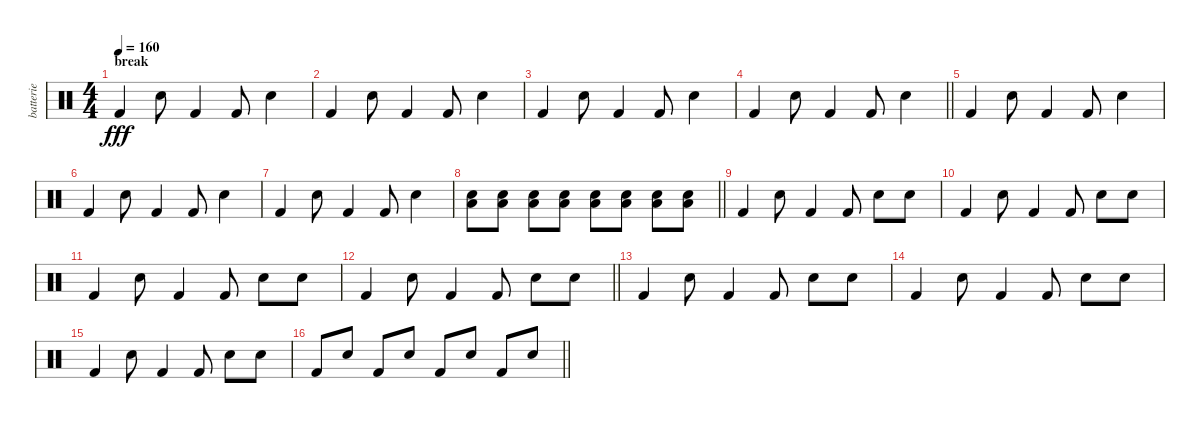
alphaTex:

\track ("batterie" "batterie") {instrument percussion}
\staff {score}
\articulation defaults
\ts (4 4)
\section ("" "break")
\tempo 160
\clef neutral
\ks c "Kick (hit) 2".4{dy fff} "Electric Snare (hit)".8 "Kick (hit) 2".4 "Kick (hit) 2".8 "Electric Snare (hit)".4
|
"Kick (hit) 2".4 "Electric Snare (hit)".8 "Kick (hit) 2".4 "Kick (hit) 2".8 "Electric Snare (hit)".4 |
"Kick (hit) 2".4 "Electric Snare (hit)".8 "Kick (hit) 2".4 "Kick (hit) 2".8 "Electric Snare (hit)".4 |
\barLineRight lightlight "Kick (hit) 2".4 "Electric Snare (hit)".8 "Kick (hit) 2".4 "Kick (hit) 2".8 "Electric Snare (hit)".4
|
"Kick (hit) 2".4 "Electric Snare (hit)".8 "Kick (hit) 2".4 "Kick (hit) 2".8 "Electric Snare (hit)".4 |
"Kick (hit) 2".4 "Electric Snare (hit)".8 "Kick (hit) 2".4 "Kick (hit) 2".8 "Electric Snare (hit)".4 |
"Kick (hit) 2".4 "Electric Snare (hit)".8 "Kick (hit) 2".4 "Kick (hit) 2".8 "Electric Snare (hit)".4 |
\barLineRight lightlight
("Electric Snare (hit)" "Low Floor Tom (hit)").8 ("Electric Snare (hit)" "Low Floor Tom (hit)").8 ("Electric Snare (hit)" "Low Floor Tom (hit)").8 ("Electric Snare (hit)" "Low Floor Tom (hit)").8 ("Electric Snare (hit)" "Low Floor Tom (hit)").8 ("Electric Snare (hit)" "Low Floor Tom (hit)").8 ("Electric Snare (hit)" "Low Floor Tom (hit)").8 ("Electric Snare (hit)" "Low Floor Tom (hit)").8 |
"Kick (hit) 2".4 "Electric Snare (hit)".8 "Kick (hit) 2".4 "Kick (hit) 2".8 "Electric Snare (hit)".8 "Electric Snare (hit)".8 |
"Kick (hit) 2".4 "Electric Snare (hit)".8 "Kick (hit) 2".4 "Kick (hit) 2".8 "Electric Snare (hit)".8 "Electric Snare (hit)".8 |
"Kick (hit) 2".4 "Electric Snare (hit)".8 "Kick (hit) 2".4 "Kick (hit) 2".8 "Electric Snare (hit)".8 "Electric Snare (hit)".8 |
\barLineRight lightlight "Kick (hit) 2".4 "Electric Snare (hit)".8 "Kick (hit) 2".4 "Kick (hit) 2".8 "Electric Snare (hit)".8 "Electric Snare (hit)".8
|
"Kick (hit) 2".4 "Electric Snare (hit)".8 "Kick (hit) 2".4 "Kick (hit) 2".8 "Electric Snare (hit)".8 "Electric Snare (hit)".8 |
"Kick (hit) 2".4 "Electric Snare (hit)".8 "Kick (hit) 2".4 "Kick (hit) 2".8 "Electric Snare (hit)".8 "Electric Snare (hit)".8 |
"Kick (hit) 2".4 "Electric Snare (hit)".8 "Kick (hit) 2".4 "Kick (hit) 2".8 "Electric Snare (hit)".8 "Electric Snare (hit)".8 |
\barLineRight lightlight "Kick (hit) 2".8 "Electric Snare (hit)".8 "Kick (hit) 2".8 "Electric Snare (hit)".8 "Kick (hit) 2".8 "Electric Snare (hit)".8 "Kick (hit) 2".8 "Electric Snare (hit)".8
